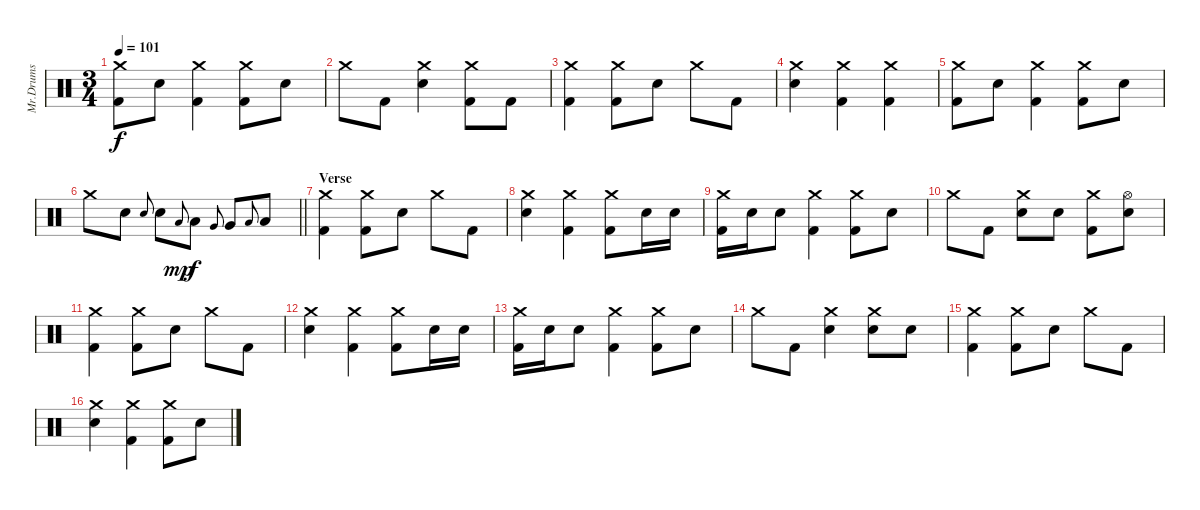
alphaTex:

\track ("Mr.Drums" "Mr.Drums") {instrument percussion}
\staff {score}
\articulation defaults
\ts (3 4)
\tempo 101
\clef neutral
\ks c
("Crash medium (hit)" "Kick (hit) 2").8{dy f} "Electric Snare (hit)".8 ("Crash medium (hit)" "Kick (hit) 2").4 ("Crash medium (hit)" "Kick (hit) 2").8 "Electric Snare (hit)".8 |
"Crash medium (hit)".8 "Kick (hit) 2".8 ("Crash medium (hit)" "Electric Snare (hit)").4 ("Crash medium (hit)" "Kick (hit) 2").8 "Kick (hit) 2".8 |
("Crash medium (hit)" "Kick (hit) 2").4 ("Crash medium (hit)" "Kick (hit) 2").8 "Electric Snare (hit)".8 "Crash medium (hit)".8 "Kick (hit) 2".8 |
("Crash medium (hit)" "Electric Snare (hit)").4 ("Crash medium (hit)" "Kick (hit) 2").4 ("Crash medium (hit)" "Kick (hit) 2").4 |
("Crash medium (hit)" "Kick (hit) 2").8 "Electric Snare (hit)".8 ("Crash medium (hit)" "Kick (hit) 2").4 ("Crash medium (hit)" "Kick (hit) 2").8 "Electric Snare (hit)".8 |
\barLineRight lightlight "Crash medium (hit)".8 "Electric Snare (hit)".8 "Electric Snare (hit)".8{gr onbeat} "Electric Snare (hit)".8 "Low Tom (hit)".8{gr onbeat dy mp} "Low Tom (hit)".8{dy f} "Very Low Tom (hit)".8{gr onbeat} "Very Low Tom (hit)".8 "Low Floor Tom (hit)".8{gr onbeat} "Low Floor Tom (hit)".8
|
\section ("" "Verse ")
("Crash medium (hit)" "Kick (hit) 2").4 ("Crash medium (hit)" "Kick (hit) 2").8 "Electric Snare (hit)".8 "Crash medium (hit)".8 "Kick (hit) 2".8 |
("Crash medium (hit)" "Electric Snare (hit)").4 ("Crash medium (hit)" "Kick (hit) 2").4 ("Crash medium (hit)" "Kick (hit) 2").8 "Electric Snare (hit)".16 "Electric Snare (hit)".16 |
("Crash medium (hit)" "Kick (hit) 2").16 "Electric Snare (hit)".16 "Electric Snare (hit)".8 ("Crash medium (hit)" "Kick (hit) 2").4 ("Crash medium (hit)" "Kick (hit) 2").8 "Electric Snare (hit)".8 |
"Crash medium (hit)".8 "Kick (hit) 2".8 ("Crash medium (hit)" "Electric Snare (hit)").8 "Electric Snare (hit)".8 ("Crash medium (hit)" "Kick (hit) 2").8 ("Hi-Hat (open)" "Electric Snare (hit)").8 |
("Crash medium (hit)" "Kick (hit) 2").4 ("Crash medium (hit)" "Kick (hit) 2").8 "Electric Snare (hit)".8 "Crash medium (hit)".8 "Kick (hit) 2".8 |
("Crash medium (hit)" "Electric Snare (hit)").4 ("Crash medium (hit)" "Kick (hit) 2").4 ("Crash medium (hit)" "Kick (hit) 2").8 "Electric Snare (hit)".16 "Electric Snare (hit)".16 |
("Crash medium (hit)" "Kick (hit) 2").16 "Electric Snare (hit)".16 "Electric Snare (hit)".8 ("Crash medium (hit)" "Kick (hit) 2").4 ("Crash medium (hit)" "Kick (hit) 2").8 "Electric Snare (hit)".8 |
"Crash medium (hit)".8 "Kick (hit) 2".8 ("Crash medium (hit)" "Electric Snare (hit)").4 ("Crash medium (hit)" "Electric Snare (hit)").8 "Electric Snare (hit)".8 |
("Crash medium (hit)" "Kick (hit) 2").4 ("Crash medium (hit)" "Kick (hit) 2").8 "Electric Snare (hit)".8 "Crash medium (hit)".8 "Kick (hit) 2".8 |
("Crash medium (hit)" "Electric Snare (hit)").4 ("Crash medium (hit)" "Kick (hit) 2").4 ("Crash medium (hit)" "Kick (hit) 2").8 "Electric Snare (hit)".8
